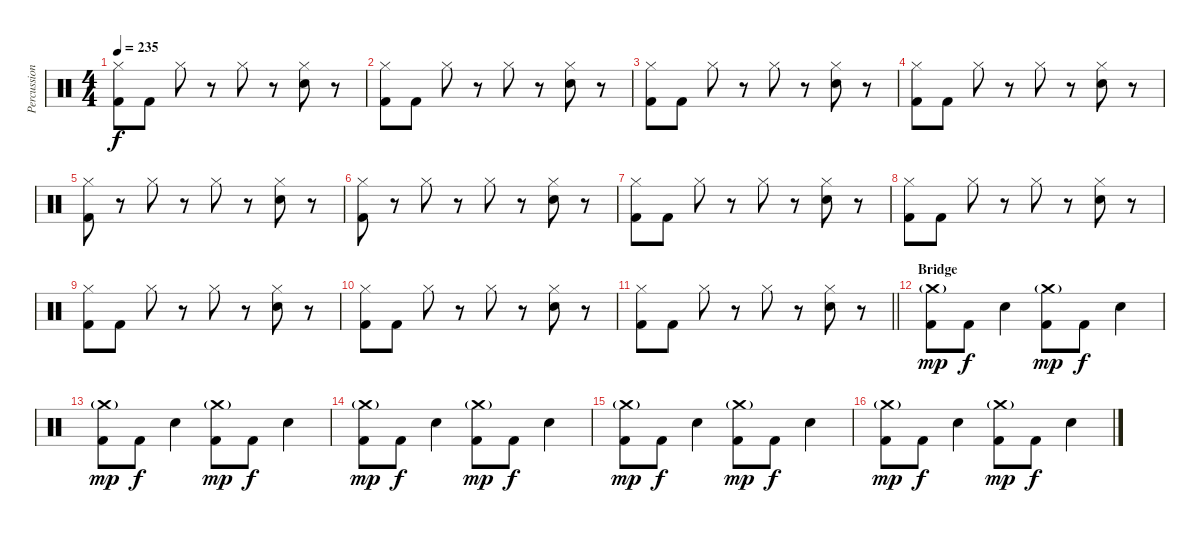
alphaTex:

\track ("Percussion" "Percussion") {instrument percussion}
\staff {score}
\articulation defaults
\ts (4 4)
\tempo 235
\clef neutral
\ks c
("Hi-Hat (closed)" "Kick (hit) 2").8{dy f} "Kick (hit) 2".8 "Hi-Hat (closed)".8 r.8 "Hi-Hat (closed)".8 r.8 ("Hi-Hat (closed)" "Electric Snare (hit)").8 r.8 |
("Hi-Hat (closed)" "Kick (hit) 2").8 "Kick (hit) 2".8 "Hi-Hat (closed)".8 r.8 "Hi-Hat (closed)".8 r.8 ("Hi-Hat (closed)" "Electric Snare (hit)").8 r.8 |
("Hi-Hat (closed)" "Kick (hit) 2").8 "Kick (hit) 2".8 "Hi-Hat (closed)".8 r.8 "Hi-Hat (closed)".8 r.8 ("Hi-Hat (closed)" "Electric Snare (hit)").8 r.8 |
("Hi-Hat (closed)" "Kick (hit) 2").8 "Kick (hit) 2".8 "Hi-Hat (closed)".8 r.8 "Hi-Hat (closed)".8 r.8 ("Hi-Hat (closed)" "Electric Snare (hit)").8 r.8 |
("Hi-Hat (closed)" "Kick (hit) 2").8 r.8 "Hi-Hat (closed)".8 r.8 "Hi-Hat (closed)".8 r.8 ("Hi-Hat (closed)" "Electric Snare (hit)").8 r.8 |
("Hi-Hat (closed)" "Kick (hit) 2").8 r.8 "Hi-Hat (closed)".8 r.8 "Hi-Hat (closed)".8 r.8 ("Hi-Hat (closed)" "Electric Snare (hit)").8 r.8 |
("Hi-Hat (closed)" "Kick (hit) 2").8 "Kick (hit) 2".8 "Hi-Hat (closed)".8 r.8 "Hi-Hat (closed)".8 r.8 ("Hi-Hat (closed)" "Electric Snare (hit)").8 r.8 |
("Hi-Hat (closed)" "Kick (hit) 2").8 "Kick (hit) 2".8 "Hi-Hat (closed)".8 r.8 "Hi-Hat (closed)".8 r.8 ("Hi-Hat (closed)" "Electric Snare (hit)").8 r.8 |
("Hi-Hat (closed)" "Kick (hit) 2").8 "Kick (hit) 2".8 "Hi-Hat (closed)".8 r.8 "Hi-Hat (closed)".8 r.8 ("Hi-Hat (closed)" "Electric Snare (hit)").8 r.8 |
("Hi-Hat (closed)" "Kick (hit) 2").8 "Kick (hit) 2".8 "Hi-Hat (closed)".8 r.8 "Hi-Hat (closed)".8 r.8 ("Hi-Hat (closed)" "Electric Snare (hit)").8 r.8 |
\barLineRight lightlight
("Hi-Hat (closed)" "Kick (hit) 2").8 "Kick (hit) 2".8 "Hi-Hat (closed)".8 r.8 "Hi-Hat (closed)".8 r.8 ("Hi-Hat (closed)" "Electric Snare (hit)").8 r.8 |
\section ("" "Bridge")
("Crash medium (hit)"{g} "Kick (hit) 2").8{dy mp} "Kick (hit) 2".8{dy f} "Electric Snare (hit)".4 ("Crash medium (hit)"{g} "Kick (hit) 2").8{dy mp} "Kick (hit) 2".8{dy f} "Electric Snare (hit)".4 |
("Crash medium (hit)"{g} "Kick (hit) 2").8{dy mp} "Kick (hit) 2".8{dy f} "Electric Snare (hit)".4 ("Crash medium (hit)"{g} "Kick (hit) 2").8{dy mp} "Kick (hit) 2".8{dy f} "Electric Snare (hit)".4 |
("Crash medium (hit)"{g} "Kick (hit) 2").8{dy mp} "Kick (hit) 2".8{dy f} "Electric Snare (hit)".4 ("Crash medium (hit)"{g} "Kick (hit) 2").8{dy mp} "Kick (hit) 2".8{dy f} "Electric Snare (hit)".4 |
("Crash medium (hit)"{g} "Kick (hit) 2").8{dy mp} "Kick (hit) 2".8{dy f} "Electric Snare (hit)".4 ("Crash medium (hit)"{g} "Kick (hit) 2").8{dy mp} "Kick (hit) 2".8{dy f} "Electric Snare (hit)".4 |
("Crash medium (hit)"{g} "Kick (hit) 2").8{dy mp} "Kick (hit) 2".8{dy f} "Electric Snare (hit)".4 ("Crash medium (hit)"{g} "Kick (hit) 2").8{dy mp} "Kick (hit) 2".8{dy f} "Electric Snare (hit)".4
